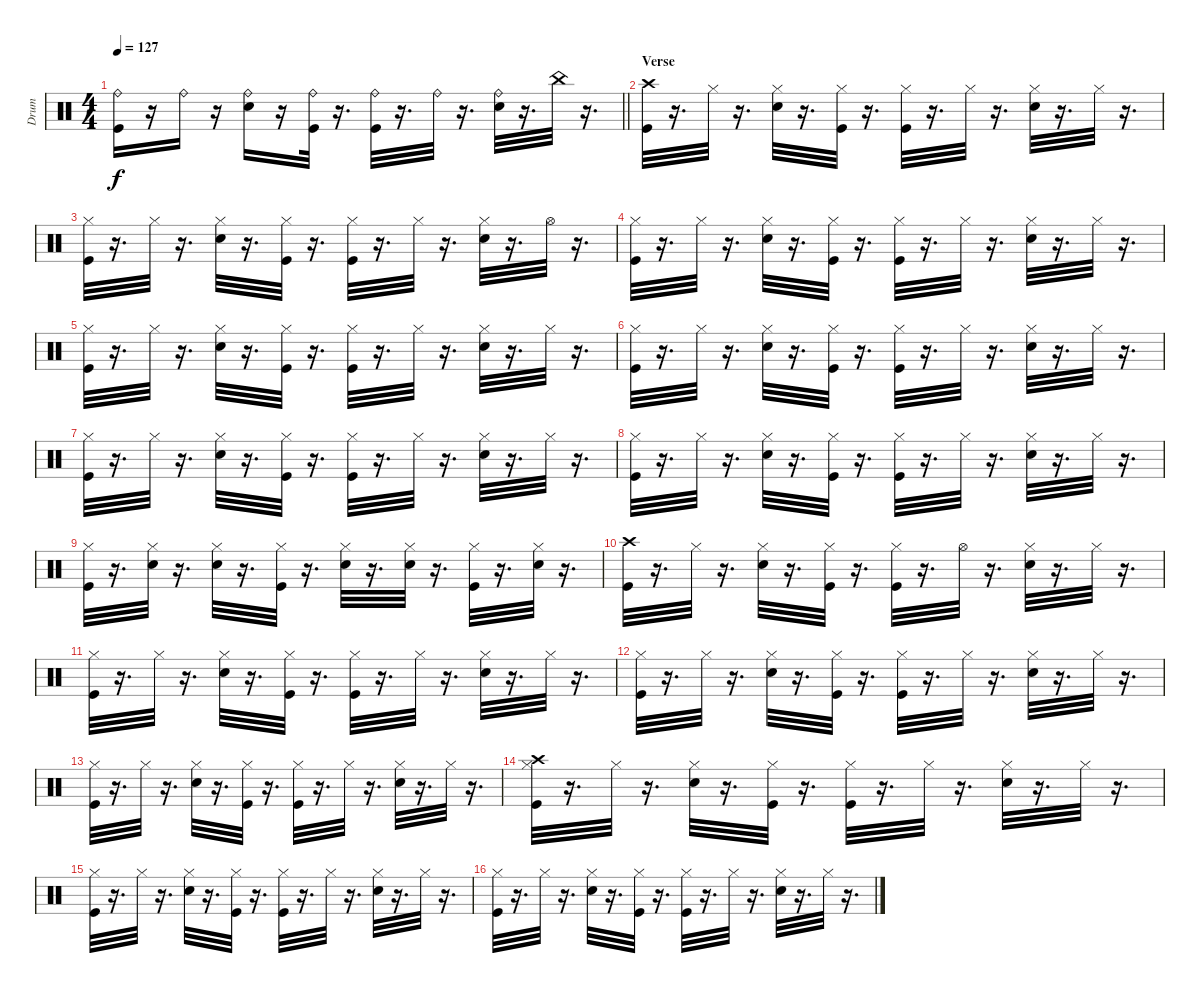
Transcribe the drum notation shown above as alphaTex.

\track ("Drum" "Drum") {instrument percussion}
\staff {score}
\articulation defaults
\ts (4 4)
\tempo 127
\clef neutral
\barLineRight lightlight
\ks c
("Kick (hit)" "Ride (bell)").16{dy f} r.16 "Ride (bell)".16 r.16 ("Snare (hit) 2" "Ride (bell)").16 r.16 ("Kick (hit)" "Ride (bell)").32 r.16{d} ("Ride (bell)" "Kick (hit)").32 r.16{d} "Ride (bell)".32 r.16{d} ("Snare (hit) 2" "Ride (bell)").32 r.16{d} "China (hit)".32 r.16{d} |
\section ("" "Verse")
("Crash high (hit)" "Kick (hit)").32 r.16{d} "Hi-Hat (closed)".32 r.16{d} ("Snare (hit) 2" "Hi-Hat (closed)").32 r.16{d} ("Kick (hit)" "Hi-Hat (closed)").32 r.16{d} ("Hi-Hat (closed)" "Kick (hit)").32 r.16{d} "Hi-Hat (closed)".32 r.16{d} ("Snare (hit) 2" "Hi-Hat (closed)").32 r.16{d} "Hi-Hat (closed)".32 r.16{d} |
("Kick (hit)" "Hi-Hat (closed)").32 r.16{d} "Hi-Hat (closed)".32 r.16{d} ("Snare (hit) 2" "Hi-Hat (closed)").32 r.16{d} ("Kick (hit)" "Hi-Hat (closed)").32 r.16{d} ("Hi-Hat (closed)" "Kick (hit)").32 r.16{d} "Hi-Hat (closed)".32 r.16{d} ("Snare (hit) 2" "Hi-Hat (closed)").32 r.16{d} "Hi-Hat (open)".32 r.16{d} |
("Kick (hit)" "Hi-Hat (closed)").32 r.16{d} "Hi-Hat (closed)".32 r.16{d} ("Snare (hit) 2" "Hi-Hat (closed)").32 r.16{d} ("Kick (hit)" "Hi-Hat (closed)").32 r.16{d} ("Hi-Hat (closed)" "Kick (hit)").32 r.16{d} "Hi-Hat (closed)".32 r.16{d} ("Snare (hit) 2" "Hi-Hat (closed)").32 r.16{d} "Hi-Hat (closed)".32 r.16{d} |
("Kick (hit)" "Hi-Hat (closed)").32 r.16{d} "Hi-Hat (closed)".32 r.16{d} ("Snare (hit) 2" "Hi-Hat (closed)").32 r.16{d} ("Kick (hit)" "Hi-Hat (closed)").32 r.16{d} ("Hi-Hat (closed)" "Kick (hit)").32 r.16{d} "Hi-Hat (closed)".32 r.16{d} ("Snare (hit) 2" "Hi-Hat (closed)").32 r.16{d} "Hi-Hat (closed)".32 r.16{d} |
("Kick (hit)" "Hi-Hat (closed)").32 r.16{d} "Hi-Hat (closed)".32 r.16{d} ("Snare (hit) 2" "Hi-Hat (closed)").32 r.16{d} ("Kick (hit)" "Hi-Hat (closed)").32 r.16{d} ("Hi-Hat (closed)" "Kick (hit)").32 r.16{d} "Hi-Hat (closed)".32 r.16{d} ("Snare (hit) 2" "Hi-Hat (closed)").32 r.16{d} "Hi-Hat (closed)".32 r.16{d} |
("Kick (hit)" "Hi-Hat (closed)").32 r.16{d} "Hi-Hat (closed)".32 r.16{d} ("Snare (hit) 2" "Hi-Hat (closed)").32 r.16{d} ("Kick (hit)" "Hi-Hat (closed)").32 r.16{d} ("Hi-Hat (closed)" "Kick (hit)").32 r.16{d} "Hi-Hat (closed)".32 r.16{d} ("Snare (hit) 2" "Hi-Hat (closed)").32 r.16{d} "Hi-Hat (closed)".32 r.16{d} |
("Kick (hit)" "Hi-Hat (closed)").32 r.16{d} "Hi-Hat (closed)".32 r.16{d} ("Snare (hit) 2" "Hi-Hat (closed)").32 r.16{d} ("Kick (hit)" "Hi-Hat (closed)").32 r.16{d} ("Hi-Hat (closed)" "Kick (hit)").32 r.16{d} "Hi-Hat (closed)".32 r.16{d} ("Snare (hit) 2" "Hi-Hat (closed)").32 r.16{d} "Hi-Hat (closed)".32 r.16{d} |
("Kick (hit)" "Hi-Hat (closed)").32 r.16{d} ("Hi-Hat (closed)" "Snare (hit) 2").32 r.16{d} ("Snare (hit) 2" "Hi-Hat (closed)").32 r.16{d} ("Kick (hit)" "Hi-Hat (closed)").32 r.16{d} ("Hi-Hat (closed)" "Snare (hit) 2").32 r.16{d} ("Hi-Hat (closed)" "Snare (hit) 2").32 r.16{d} ("Hi-Hat (closed)" "Kick (hit)").32 r.16{d} ("Hi-Hat (closed)" "Snare (hit) 2").32 r.16{d} |
("Kick (hit)" "Crash high (hit)").32 r.16{d} "Hi-Hat (closed)".32 r.16{d} ("Snare (hit) 2" "Hi-Hat (closed)").32 r.16{d} ("Kick (hit)" "Hi-Hat (closed)").32 r.16{d} ("Hi-Hat (closed)" "Kick (hit)").32 r.16{d} "Hi-Hat (open)".32 r.16{d} ("Snare (hit) 2" "Hi-Hat (closed)").32 r.16{d} "Hi-Hat (closed)".32 r.16{d} |
("Kick (hit)" "Hi-Hat (closed)").32 r.16{d} "Hi-Hat (closed)".32 r.16{d} ("Snare (hit) 2" "Hi-Hat (closed)").32 r.16{d} ("Kick (hit)" "Hi-Hat (closed)").32 r.16{d} ("Hi-Hat (closed)" "Kick (hit)").32 r.16{d} "Hi-Hat (closed)".32 r.16{d} ("Snare (hit) 2" "Hi-Hat (closed)").32 r.16{d} "Hi-Hat (closed)".32 r.16{d} |
("Kick (hit)" "Hi-Hat (closed)").32 r.16{d} "Hi-Hat (closed)".32 r.16{d} ("Snare (hit) 2" "Hi-Hat (closed)").32 r.16{d} ("Kick (hit)" "Hi-Hat (closed)").32 r.16{d} ("Hi-Hat (closed)" "Kick (hit)").32 r.16{d} "Hi-Hat (closed)".32 r.16{d} ("Snare (hit) 2" "Hi-Hat (closed)").32 r.16{d} "Hi-Hat (closed)".32 r.16{d} |
("Kick (hit)" "Hi-Hat (closed)").32 r.16{d} "Hi-Hat (closed)".32 r.16{d} ("Snare (hit) 2" "Hi-Hat (closed)").32 r.16{d} ("Kick (hit)" "Hi-Hat (closed)").32 r.16{d} ("Hi-Hat (closed)" "Kick (hit)").32 r.16{d} "Hi-Hat (closed)".32 r.16{d} ("Snare (hit) 2" "Hi-Hat (closed)").32 r.16{d} "Hi-Hat (closed)".32 r.16{d} |
("Kick (hit)" "Hi-Hat (closed)" "Crash high (hit)").32 r.16{d} "Hi-Hat (closed)".32 r.16{d} ("Snare (hit) 2" "Hi-Hat (closed)").32 r.16{d} ("Kick (hit)" "Hi-Hat (closed)").32 r.16{d} ("Hi-Hat (closed)" "Kick (hit)").32 r.16{d} "Hi-Hat (closed)".32 r.16{d} ("Snare (hit) 2" "Hi-Hat (closed)").32 r.16{d} "Hi-Hat (closed)".32 r.16{d} |
("Kick (hit)" "Hi-Hat (closed)").32 r.16{d} "Hi-Hat (closed)".32 r.16{d} ("Snare (hit) 2" "Hi-Hat (closed)").32 r.16{d} ("Kick (hit)" "Hi-Hat (closed)").32 r.16{d} ("Hi-Hat (closed)" "Kick (hit)").32 r.16{d} "Hi-Hat (closed)".32 r.16{d} ("Snare (hit) 2" "Hi-Hat (closed)").32 r.16{d} "Hi-Hat (closed)".32 r.16{d} |
("Kick (hit)" "Hi-Hat (closed)").32 r.16{d} "Hi-Hat (closed)".32 r.16{d} ("Snare (hit) 2" "Hi-Hat (closed)").32 r.16{d} ("Kick (hit)" "Hi-Hat (closed)").32 r.16{d} ("Hi-Hat (closed)" "Kick (hit)").32 r.16{d} "Hi-Hat (closed)".32 r.16{d} ("Snare (hit) 2" "Hi-Hat (closed)").32 r.16{d} "Hi-Hat (closed)".32 r.16{d}
